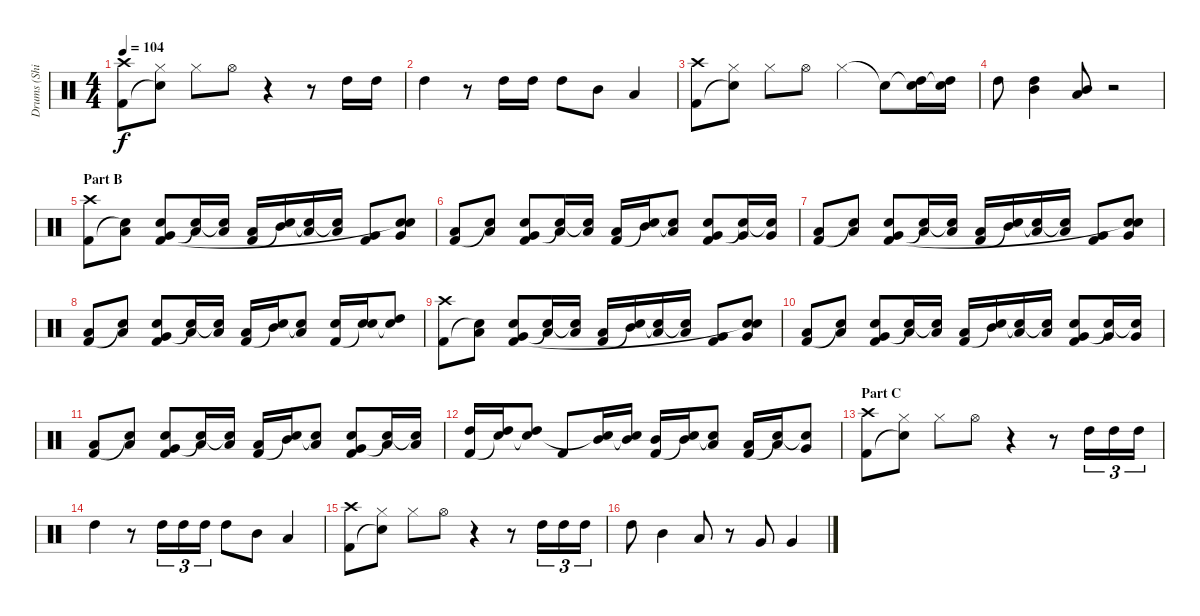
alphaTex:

\track ("Drums (Shinya)" "Drums (Shi") {instrument percussion}
\staff {score}
\articulation defaults
\ts (4 4)
\tempo 104
\clef neutral
\ks c
("Crash high (hit)" "Kick (hit) 2").8{dy f} ("Hi-Hat (closed)" "Snare (hit)"{t}).8 "Hi-Hat (closed)".8 "Hi-Hat (open)".8 r.4 r.8 "High Tom (hit)".16 "High Tom (hit)".16 |
"High Tom (hit)".4 r.8 "High Tom (hit)".16 "High Tom (hit)".16 "High Tom (hit)".8 "Mid Tom (hit)".8 "Low Tom (hit)".4 |
("Crash high (hit)" "Kick (hit) 2").8 ("Hi-Hat (closed)" "Snare (hit)"{t}).8 "Hi-Hat (closed)".8 "Hi-Hat (open)".8 "Hi-Hat (closed)".4 "Snare (hit)"{t}.8 ("Snare (hit)"{t} "High Tom (hit)").16 ("Snare (hit)"{t} "High Tom (hit)").16 |
"High Tom (hit)".8 ("High Tom (hit)" "Mid Tom (hit)").4 ("Mid Tom (hit)" "Low Tom (hit)").8 r.2 |
\section ("" "Part B")
("Crash high (hit)" "Kick (hit) 2").8 ("Low Tom (hit)" "Snare (hit)"{t}).8 ("Electric Snare (hit)" "Very Low Tom (hit)" "Kick (hit) 2").8 ("Low Tom (hit)" "Snare (hit)"{t}).16 ("Low Tom (hit)" "Snare (hit)"{t}).16 ("Low Tom (hit)" "Kick (hit) 2").16 ("Mid Tom (hit)" "Snare (hit)"{t}).16 ("Low Tom (hit)" "Snare (hit)"{t}).16 ("Low Tom (hit)" "Snare (hit)"{t}).16 ("Very Low Tom (hit)" "Kick (hit) 2").8 ("Electric Snare (hit)" "Very Low Tom (hit)" "Snare (hit)"{t}).8 |
("Low Tom (hit)" "Kick (hit) 2").8 ("Low Tom (hit)" "Snare (hit)"{t}).8 ("Electric Snare (hit)" "Very Low Tom (hit)" "Kick (hit) 2").8 ("Low Tom (hit)" "Snare (hit)"{t}).16 ("Low Tom (hit)" "Snare (hit)"{t}).16 ("Low Tom (hit)" "Kick (hit) 2").16 ("Mid Tom (hit)" "Snare (hit)"{t}).16 ("Low Tom (hit)" "Snare (hit)"{t}).8 ("Electric Snare (hit)" "Very Low Tom (hit)" "Kick (hit) 2").8 ("Very Low Tom (hit)" "Snare (hit)"{t}).16 ("Very Low Tom (hit)" "Snare (hit)"{t}).16 |
("Low Tom (hit)" "Kick (hit) 2").8 ("Low Tom (hit)" "Snare (hit)"{t}).8 ("Electric Snare (hit)" "Very Low Tom (hit)" "Kick (hit) 2").8 ("Low Tom (hit)" "Snare (hit)"{t}).16 ("Low Tom (hit)" "Snare (hit)"{t}).16 ("Low Tom (hit)" "Kick (hit) 2").16 ("Mid Tom (hit)" "Snare (hit)"{t}).16 ("Low Tom (hit)" "Snare (hit)"{t}).16 ("Low Tom (hit)" "Snare (hit)"{t}).16 ("Very Low Tom (hit)" "Kick (hit) 2").8 ("Electric Snare (hit)" "Very Low Tom (hit)" "Snare (hit)"{t}).8 |
("Low Tom (hit)" "Kick (hit) 2").8 ("Low Tom (hit)" "Snare (hit)"{t}).8 ("Electric Snare (hit)" "Very Low Tom (hit)" "Kick (hit) 2").8 ("Low Tom (hit)" "Snare (hit)"{t}).16 ("Low Tom (hit)" "Snare (hit)"{t}).16 ("Low Tom (hit)" "Kick (hit) 2").16 ("Mid Tom (hit)" "Snare (hit)"{t}).16 ("Low Tom (hit)" "Snare (hit)"{t}).8 ("Electric Snare (hit)" "Kick (hit) 2").16 ("Electric Snare (hit)" "Snare (hit)"{t}).16 ("High Tom (hit)" "Snare (hit)"{t}).8 |
("Crash high (hit)" "Kick (hit) 2").8 ("Low Tom (hit)" "Snare (hit)"{t}).8 ("Electric Snare (hit)" "Very Low Tom (hit)" "Kick (hit) 2").8 ("Low Tom (hit)" "Snare (hit)"{t}).16 ("Low Tom (hit)" "Snare (hit)"{t}).16 ("Low Tom (hit)" "Kick (hit) 2").16 ("Mid Tom (hit)" "Snare (hit)"{t}).16 ("Low Tom (hit)" "Snare (hit)"{t}).16 ("Low Tom (hit)" "Snare (hit)"{t}).16 ("Very Low Tom (hit)" "Kick (hit) 2").8 ("Electric Snare (hit)" "Very Low Tom (hit)" "Snare (hit)"{t}).8 |
("Low Tom (hit)" "Kick (hit) 2").8 ("Low Tom (hit)" "Snare (hit)"{t}).8 ("Electric Snare (hit)" "Very Low Tom (hit)" "Kick (hit) 2").8 ("Low Tom (hit)" "Snare (hit)"{t}).16 ("Low Tom (hit)" "Snare (hit)"{t}).16 ("Low Tom (hit)" "Kick (hit) 2").16 ("Mid Tom (hit)" "Snare (hit)"{t}).16 ("Low Tom (hit)" "Snare (hit)"{t}).16 ("Low Tom (hit)" "Snare (hit)"{t}).16 ("Electric Snare (hit)" "Very Low Tom (hit)" "Kick (hit) 2").8 ("Very Low Tom (hit)" "Snare (hit)"{t}).16 ("Very Low Tom (hit)" "Snare (hit)"{t}).16 |
("Low Tom (hit)" "Kick (hit) 2").8 ("Low Tom (hit)" "Snare (hit)"{t}).8 ("Electric Snare (hit)" "Very Low Tom (hit)" "Kick (hit) 2").8 ("Low Tom (hit)" "Snare (hit)"{t}).16 ("Low Tom (hit)" "Snare (hit)"{t}).16 ("Low Tom (hit)" "Kick (hit) 2").16 ("Mid Tom (hit)" "Snare (hit)"{t}).16 ("Low Tom (hit)" "Snare (hit)"{t}).8 ("Electric Snare (hit)" "Very Low Tom (hit)" "Kick (hit) 2").8 ("Low Tom (hit)" "Snare (hit)"{t}).16 ("Low Tom (hit)" "Snare (hit)"{t}).16 |
("High Tom (hit)" "Kick (hit) 2").16 ("High Tom (hit)" "Snare (hit)"{t}).16 ("High Tom (hit)" "Snare (hit)"{t}).8 "Kick (hit) 2".8 ("Mid Tom (hit)" "Snare (hit)"{t}).16 ("Mid Tom (hit)" "Snare (hit)"{t}).16 ("Mid Tom (hit)" "Kick (hit) 2").16 ("Mid Tom (hit)" "Snare (hit)"{t}).16 ("Low Tom (hit)" "Snare (hit)"{t}).8 ("Low Tom (hit)" "Kick (hit) 2").16 ("Low Tom (hit)" "Snare (hit)"{t}).16 ("Very Low Tom (hit)" "Snare (hit)"{t}).8 |
\section ("" "Part C")
("Crash high (hit)" "Kick (hit) 2").8 ("Hi-Hat (closed)" "Snare (hit)"{t}).8 "Hi-Hat (closed)".8 "Hi-Hat (open)".8 r.4 r.8 "High Tom (hit)".16{tu (3 2)} "High Tom (hit)".16{tu (3 2)} "High Tom (hit)".16{tu (3 2)} |
"High Tom (hit)".4 r.8 "High Tom (hit)".16{tu (3 2)} "High Tom (hit)".16{tu (3 2)} "High Tom (hit)".16{tu (3 2)} "High Tom (hit)".8 "Mid Tom (hit)".8 "Low Tom (hit)".4 |
("Crash high (hit)" "Kick (hit) 2").8 ("Hi-Hat (closed)" "Snare (hit)"{t}).8 "Hi-Hat (closed)".8 "Hi-Hat (open)".8 r.4 r.8 "High Tom (hit)".16{tu (3 2)} "High Tom (hit)".16{tu (3 2)} "High Tom (hit)".16{tu (3 2)} |
"High Tom (hit)".8 "Mid Tom (hit)".4 "Low Tom (hit)".8 r.8 "Very Low Tom (hit)".8 "Very Low Tom (hit)".4
